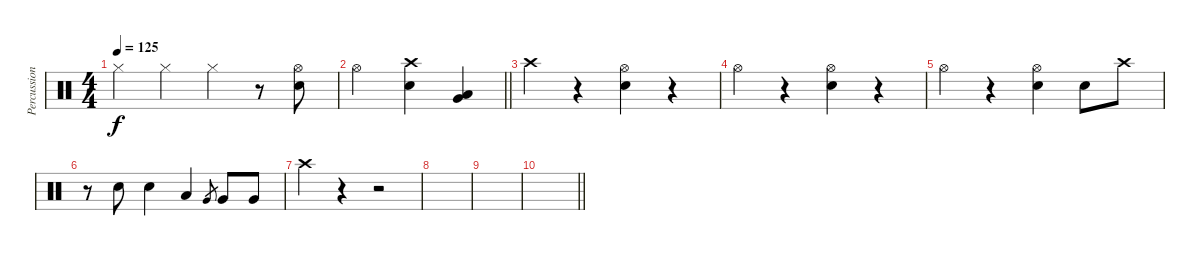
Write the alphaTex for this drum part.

\track ("Percussion" "Percussion") {instrument percussion}
\staff {score}
\articulation defaults
\ts (4 4)
\tempo 125
\clef neutral
\ks c "Hi-Hat (closed)".4{dy f} "Hi-Hat (closed)".4 "Hi-Hat (closed)".4
r.8 ("Hi-Hat (open)" "Snare (hit) 2").8 |
\barLineRight lightlight "Hi-Hat (open)".2
("Crash high (hit)" "Snare (hit) 2").4 ("Low Tom (hit)" "Very Low Tom (hit)").4 |
"Crash high (hit)".4 r.4 ("Hi-Hat (open)" "Snare (hit) 2").4 r.4 |
"Hi-Hat (open)".4 r.4 ("Hi-Hat (open)" "Snare (hit) 2").4 r.4 |
"Hi-Hat (open)".4 r.4 ("Hi-Hat (open)" "Snare (hit) 2").4 "Snare (hit) 2".8 "Crash high (hit)".8 |
r.8 "Snare (hit) 2".8 "Snare (hit) 2".4 "Low Tom (hit)".4 "Very Low Tom (hit)".8{gr} "Very Low Tom (hit)".8 "Very Low Tom (hit)".8 |
"Crash high (hit)".4 r.4 r.2 |
|
|
\barLineRight lightlight
